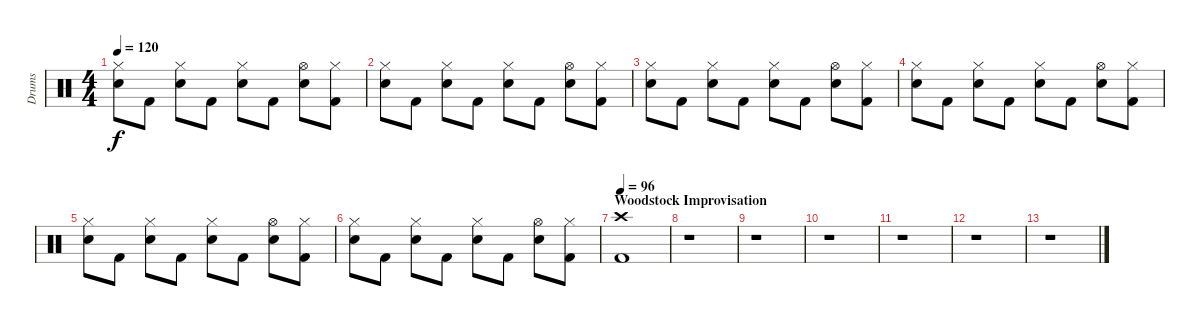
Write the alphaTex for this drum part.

\track ("Drums" "Drums") {instrument percussion}
\staff {score}
\articulation defaults
\ts (4 4)
\tempo 120
\clef neutral
\ks c
("Hi-Hat (closed)" "Electric Snare (hit)").8{dy f} "Kick (hit) 2".8 ("Hi-Hat (closed)" "Electric Snare (hit)").8 "Kick (hit) 2".8 ("Hi-Hat (closed)" "Electric Snare (hit)").8 "Kick (hit) 2".8 ("Hi-Hat (open)" "Electric Snare (hit)").8 ("Hi-Hat (closed)" "Kick (hit) 2").8 |
("Hi-Hat (closed)" "Electric Snare (hit)").8 "Kick (hit) 2".8 ("Hi-Hat (closed)" "Electric Snare (hit)").8 "Kick (hit) 2".8 ("Hi-Hat (closed)" "Electric Snare (hit)").8 "Kick (hit) 2".8 ("Hi-Hat (open)" "Electric Snare (hit)").8 ("Hi-Hat (closed)" "Kick (hit) 2").8 |
("Hi-Hat (closed)" "Electric Snare (hit)").8 "Kick (hit) 2".8 ("Hi-Hat (closed)" "Electric Snare (hit)").8 "Kick (hit) 2".8 ("Hi-Hat (closed)" "Electric Snare (hit)").8 "Kick (hit) 2".8 ("Hi-Hat (open)" "Electric Snare (hit)").8 ("Hi-Hat (closed)" "Kick (hit) 2").8 |
("Hi-Hat (closed)" "Electric Snare (hit)").8 "Kick (hit) 2".8 ("Hi-Hat (closed)" "Electric Snare (hit)").8 "Kick (hit) 2".8 ("Hi-Hat (closed)" "Electric Snare (hit)").8 "Kick (hit) 2".8 ("Hi-Hat (open)" "Electric Snare (hit)").8 ("Hi-Hat (closed)" "Kick (hit) 2").8 |
("Hi-Hat (closed)" "Electric Snare (hit)").8 "Kick (hit) 2".8 ("Hi-Hat (closed)" "Electric Snare (hit)").8 "Kick (hit) 2".8 ("Hi-Hat (closed)" "Electric Snare (hit)").8 "Kick (hit) 2".8 ("Hi-Hat (open)" "Electric Snare (hit)").8 ("Hi-Hat (closed)" "Kick (hit) 2").8 |
("Hi-Hat (closed)" "Electric Snare (hit)").8 "Kick (hit) 2".8 ("Hi-Hat (closed)" "Electric Snare (hit)").8 "Kick (hit) 2".8 ("Hi-Hat (closed)" "Electric Snare (hit)").8 "Kick (hit) 2".8 ("Hi-Hat (open)" "Electric Snare (hit)").8 ("Hi-Hat (closed)" "Kick (hit) 2").8 |
\section ("" "Woodstock Improvisation")
\tempo 96
("Crash high (hit)" "Kick (hit) 2").1 |
r.1 |
r.1 |
r.1 |
r.1 |
r.1 |
r.1
